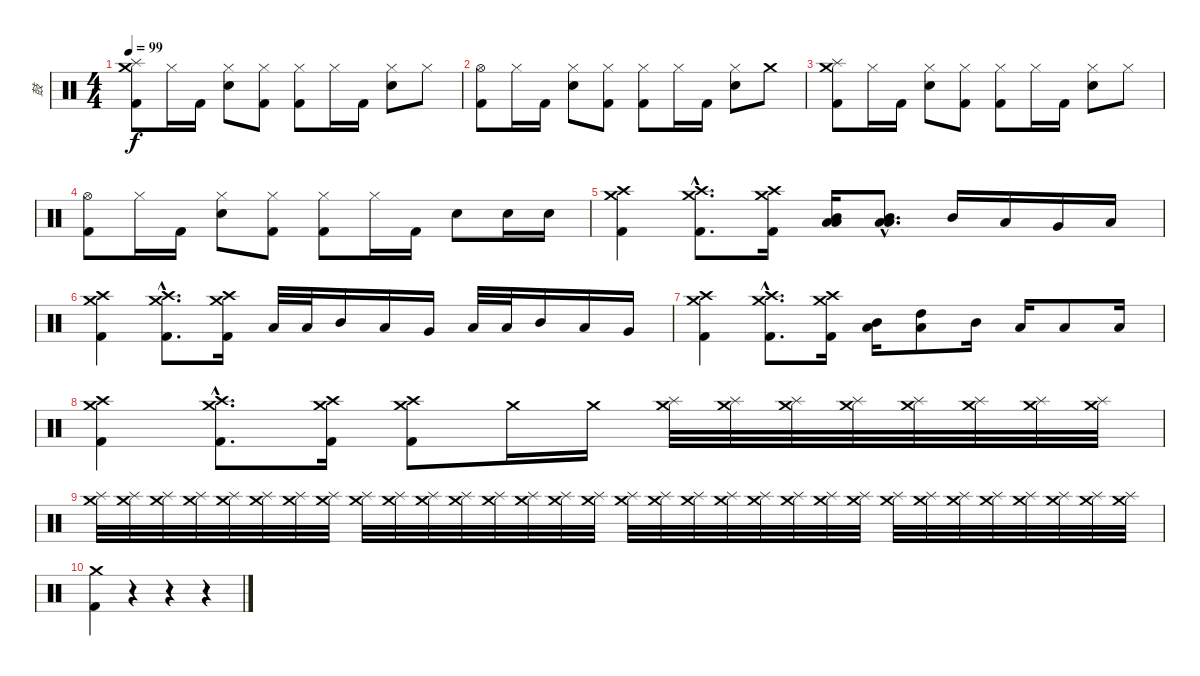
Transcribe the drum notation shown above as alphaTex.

\track ("鼓" "鼓") {instrument percussion}
\staff {score}
\articulation defaults
\ts (4 4)
\tempo 99
\clef neutral
\ks c
("Splash (hit)" "Crash medium (hit)" "Kick (hit) 2").8{dy f} "Hi-Hat (closed)".16 "Kick (hit) 2".16 ("Hi-Hat (closed)" "Electric Snare (hit)").8 ("Hi-Hat (closed)" "Kick (hit) 2").8 ("Hi-Hat (closed)" "Kick (hit) 2").8 "Hi-Hat (closed)".16 "Kick (hit) 2".16 ("Hi-Hat (closed)" "Electric Snare (hit)").8 "Hi-Hat (closed)".8 |
("Hi-Hat (open)" "Kick (hit) 2").8 "Hi-Hat (closed)".16 "Kick (hit) 2".16 ("Hi-Hat (closed)" "Electric Snare (hit)").8 ("Hi-Hat (closed)" "Kick (hit) 2").8 ("Hi-Hat (closed)" "Kick (hit) 2").8 "Hi-Hat (closed)".16 "Kick (hit) 2".16 ("Hi-Hat (closed)" "Electric Snare (hit)").8 "Crash medium (hit)".8 |
("Splash (hit)" "Crash medium (hit)" "Kick (hit) 2").8 "Hi-Hat (closed)".16 "Kick (hit) 2".16 ("Hi-Hat (closed)" "Electric Snare (hit)").8 ("Hi-Hat (closed)" "Kick (hit) 2").8 ("Hi-Hat (closed)" "Kick (hit) 2").8 "Hi-Hat (closed)".16 "Kick (hit) 2".16 ("Hi-Hat (closed)" "Electric Snare (hit)").8 "Hi-Hat (closed)".8 |
("Hi-Hat (open)" "Kick (hit) 2").8 "Hi-Hat (closed)".16 "Kick (hit) 2".16 ("Hi-Hat (closed)" "Electric Snare (hit)").8 ("Hi-Hat (closed)" "Kick (hit) 2").8 ("Hi-Hat (closed)" "Kick (hit) 2").8 "Hi-Hat (closed)".16 "Kick (hit) 2".16 "Electric Snare (hit)".8 "Electric Snare (hit)".16 "Electric Snare (hit)".16 |
("Crash high (hit)" "Crash medium (hit)" "Kick (hit) 2").4 ("Crash high (hit)"{hac} "Crash medium (hit)"{hac} "Kick (hit) 2"{hac}).8{d} ("Crash high (hit)" "Crash medium (hit)" "Kick (hit) 2").16 ("Low Tom (hit)" "Mid Tom (hit)" "Low Floor Tom (hit)").16 ("Mid Tom (hit)"{hac} "Low Tom (hit)"{hac} "Low Floor Tom (hit)"{hac}).8{d} "Mid Tom (hit)".16 "Low Tom (hit)".16 "Very Low Tom (hit)".16 "Low Floor Tom (hit)".16 |
("Crash high (hit)" "Crash medium (hit)" "Kick (hit) 2").4 ("Crash high (hit)"{hac} "Crash medium (hit)"{hac} "Kick (hit) 2"{hac}).8{d} ("Crash high (hit)" "Crash medium (hit)" "Kick (hit) 2").16 "Low Floor Tom (hit)".32 "Low Tom (hit)".32 "Mid Tom (hit)".16 "Low Tom (hit)".16 "Very Low Tom (hit)".16 "Low Floor Tom (hit)".32 "Low Tom (hit)".32 "Mid Tom (hit)".16 "Low Tom (hit)".16 "Very Low Tom (hit)".16 |
("Crash high (hit)" "Crash medium (hit)" "Kick (hit) 2").4 ("Crash high (hit)"{hac} "Crash medium (hit)"{hac} "Kick (hit) 2"{hac}).8{d} ("Crash high (hit)" "Crash medium (hit)" "Kick (hit) 2").16 ("Mid Tom (hit)" "Low Floor Tom (hit)").16 ("High Tom (hit)" "Low Floor Tom (hit)").8 "Mid Tom (hit)".16 "Low Tom (hit)".16 "Low Tom (hit)".8 "Low Floor Tom (hit)".16 |
("Crash medium (hit)" "Crash high (hit)" "Kick (hit) 2").4 ("Crash medium (hit)"{hac} "Crash high (hit)"{hac} "Kick (hit) 2"{hac}).8{d} ("Crash medium (hit)" "Crash high (hit)" "Kick (hit) 2").16 ("Crash medium (hit)" "Crash high (hit)" "Kick (hit) 2").8 "Crash medium (hit)".16 "Crash medium (hit)".16 ("Crash medium (hit)" "Splash (hit)").32 ("Crash medium (hit)" "Splash (hit)").32 ("Crash medium (hit)" "Splash (hit)").32 ("Crash medium (hit)" "Splash (hit)").32 ("Crash medium (hit)" "Splash (hit)").32 ("Crash medium (hit)" "Splash (hit)").32 ("Crash medium (hit)" "Splash (hit)").32 ("Crash medium (hit)" "Splash (hit)").32 |
("Crash medium (hit)" "Splash (hit)").32{volume 7} ("Crash medium (hit)" "Splash (hit)").32 ("Crash medium (hit)" "Splash (hit)").32 ("Crash medium (hit)" "Splash (hit)").32 ("Crash medium (hit)" "Splash (hit)").32 ("Crash medium (hit)" "Splash (hit)").32 ("Crash medium (hit)" "Splash (hit)").32 ("Crash medium (hit)" "Splash (hit)").32 ("Crash medium (hit)" "Splash (hit)").32 ("Crash medium (hit)" "Splash (hit)").32 ("Crash medium (hit)" "Splash (hit)").32 ("Crash medium (hit)" "Splash (hit)").32 ("Crash medium (hit)" "Splash (hit)").32 ("Crash medium (hit)" "Splash (hit)").32 ("Crash medium (hit)" "Splash (hit)").32 ("Crash medium (hit)" "Splash (hit)").32 ("Crash medium (hit)" "Splash (hit)").32 ("Crash medium (hit)" "Splash (hit)").32 ("Crash medium (hit)" "Splash (hit)").32 ("Crash medium (hit)" "Splash (hit)").32 ("Crash medium (hit)" "Splash (hit)").32 ("Crash medium (hit)" "Splash (hit)").32 ("Crash medium (hit)" "Splash (hit)").32 ("Crash medium (hit)" "Splash (hit)").32 ("Crash medium (hit)" "Splash (hit)").32 ("Crash medium (hit)" "Splash (hit)").32 ("Crash medium (hit)" "Splash (hit)").32 ("Crash medium (hit)" "Splash (hit)").32 ("Crash medium (hit)" "Splash (hit)").32 ("Crash medium (hit)" "Splash (hit)").32 ("Crash medium (hit)" "Splash (hit)").32 ("Crash medium (hit)" "Splash (hit)").32 |
("Crash medium (hit)" "Kick (hit) 2").4{volume 14} r.4 r.4 r.4
